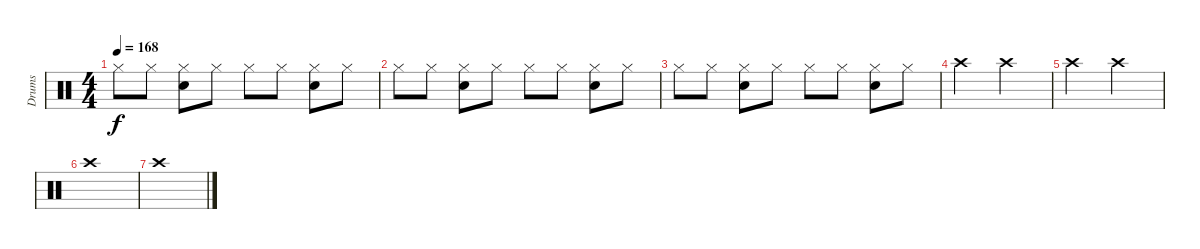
\track ("Drums" "Drums") {instrument percussion}
\staff {score}
\articulation defaults
\ts (4 4)
\tempo 168
\clef neutral
\ks c "Hi-Hat (closed)".8{dy f} "Hi-Hat (closed)".8
("Hi-Hat (closed)" "Electric Snare (hit)").8 "Hi-Hat (closed)".8 "Hi-Hat (closed)".8 "Hi-Hat (closed)".8 ("Hi-Hat (closed)" "Electric Snare (hit)").8 "Hi-Hat (closed)".8 |
"Hi-Hat (closed)".8 "Hi-Hat (closed)".8 ("Hi-Hat (closed)" "Electric Snare (hit)").8 "Hi-Hat (closed)".8 "Hi-Hat (closed)".8 "Hi-Hat (closed)".8 ("Hi-Hat (closed)" "Electric Snare (hit)").8 "Hi-Hat (closed)".8 |
"Hi-Hat (closed)".8 "Hi-Hat (closed)".8 ("Hi-Hat (closed)" "Electric Snare (hit)").8 "Hi-Hat (closed)".8 "Hi-Hat (closed)".8 "Hi-Hat (closed)".8 ("Hi-Hat (closed)" "Electric Snare (hit)").8 "Hi-Hat (closed)".8 |
"Crash high (hit)".2 "Crash high (hit)".2 |
"Crash high (hit)".2 "Crash high (hit)".2 |
"Crash high (hit)".1 |
"Crash high (hit)".1
